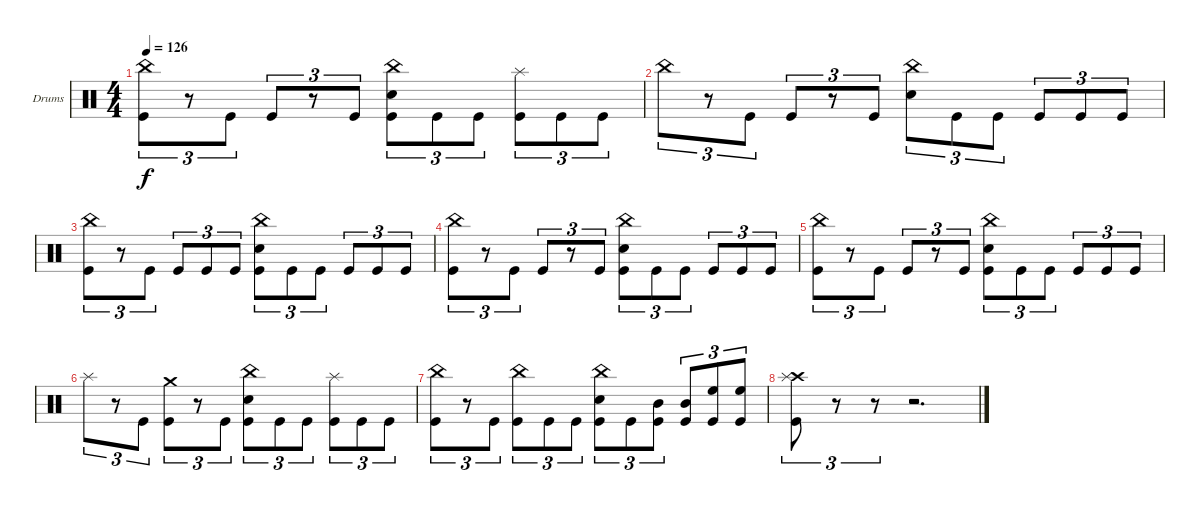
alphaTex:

\bracketExtendMode groupsimilarinstruments
\firstSystemTrackNameOrientation horizontal
\otherSystemsTrackNameOrientation horizontal
\track ("Drumkit" "Drums") {instrument percussion}
\staff {score}
\articulation defaults
\ts (4 4)
\tempo 126
\clef neutral
\ks c
("China (hit)" "Kick (hit)").8{tu (3 2) dy f} r.8{tu (3 2)} "Kick (hit)".8{tu (3 2)} "Kick (hit)".8{tu (3 2)} r.8{tu (3 2)} "Kick (hit)".8{tu (3 2)} ("China (hit)" "Snare (hit) 2" "Kick (hit)").8{tu (3 2)} "Kick (hit)".8{tu (3 2)} "Kick (hit)".8{tu (3 2)} ("Splash (hit)" "Kick (hit)").8{tu (3 2)} "Kick (hit)".8{tu (3 2)} "Kick (hit)".8{tu (3 2)} |
"China (hit)".8{tu (3 2)} r.8{tu (3 2)} "Kick (hit)".8{tu (3 2)} "Kick (hit)".8{tu (3 2)} r.8{tu (3 2)} "Kick (hit)".8{tu (3 2)} ("China (hit)" "Snare (hit) 2").8{tu (3 2)} "Kick (hit)".8{tu (3 2)} "Kick (hit)".8{tu (3 2)} "Kick (hit)".8{tu (3 2)} "Kick (hit)".8{tu (3 2)} "Kick (hit)".8{tu (3 2)} |
("China (hit)" "Kick (hit)").8{tu (3 2)} r.8{tu (3 2)} "Kick (hit)".8{tu (3 2)} "Kick (hit)".8{tu (3 2)} "Kick (hit)".8{tu (3 2)} "Kick (hit)".8{tu (3 2)} ("China (hit)" "Snare (hit) 2" "Kick (hit)").8{tu (3 2)} "Kick (hit)".8{tu (3 2)} "Kick (hit)".8{tu (3 2)} "Kick (hit)".8{tu (3 2)} "Kick (hit)".8{tu (3 2)} "Kick (hit)".8{tu (3 2)} |
("China (hit)" "Kick (hit)").8{tu (3 2)} r.8{tu (3 2)} "Kick (hit)".8{tu (3 2)} "Kick (hit)".8{tu (3 2)} r.8{tu (3 2)} "Kick (hit)".8{tu (3 2)} ("China (hit)" "Snare (hit) 2" "Kick (hit)").8{tu (3 2)} "Kick (hit)".8{tu (3 2)} "Kick (hit)".8{tu (3 2)} "Kick (hit)".8{tu (3 2)} "Kick (hit)".8{tu (3 2)} "Kick (hit)".8{tu (3 2)} |
("China (hit)" "Kick (hit)").8{tu (3 2)} r.8{tu (3 2)} "Kick (hit)".8{tu (3 2)} "Kick (hit)".8{tu (3 2)} r.8{tu (3 2)} "Kick (hit)".8{tu (3 2)} ("China (hit)" "Snare (hit) 2" "Kick (hit)").8{tu (3 2)} "Kick (hit)".8{tu (3 2)} "Kick (hit)".8{tu (3 2)} "Kick (hit)".8{tu (3 2)} "Kick (hit)".8{tu (3 2)} "Kick (hit)".8{tu (3 2)} |
"Splash (hit)".8{tu (3 2)} r.8{tu (3 2)} "Kick (hit)".8{tu (3 2)} ("Crash medium (hit)" "Kick (hit)").8{tu (3 2)} r.8{tu (3 2)} "Kick (hit)".8{tu (3 2)} ("China (hit)" "Snare (hit) 2" "Kick (hit)").8{tu (3 2)} "Kick (hit)".8{tu (3 2)} "Kick (hit)".8{tu (3 2)} ("Splash (hit)" "Kick (hit)").8{tu (3 2)} "Kick (hit)".8{tu (3 2)} "Kick (hit)".8{tu (3 2)} |
("China (hit)" "Kick (hit)").8{tu (3 2)} r.8{tu (3 2)} "Kick (hit)".8{tu (3 2)} ("China (hit)" "Kick (hit)").8{tu (3 2)} "Kick (hit)".8{tu (3 2)} "Kick (hit)".8{tu (3 2)} ("China (hit)" "Snare (hit) 2" "Kick (hit)").8{tu (3 2)} "Kick (hit)".8{tu (3 2)} ("Mid Tom (hit)" "Kick (hit)").8{tu (3 2)} ("Mid Tom (hit)" "Kick (hit)").8{tu (3 2)} ("High Floor Tom (hit)" "Kick (hit)").8{tu (3 2)} ("High Floor Tom (hit)" "Kick (hit)").8{tu (3 2)} |
("Crash high (hit)" "Splash (hit)" "Kick (hit)").8{tu (3 2)} r.8{tu (3 2)} r.8{tu (3 2)} r.2{d}
